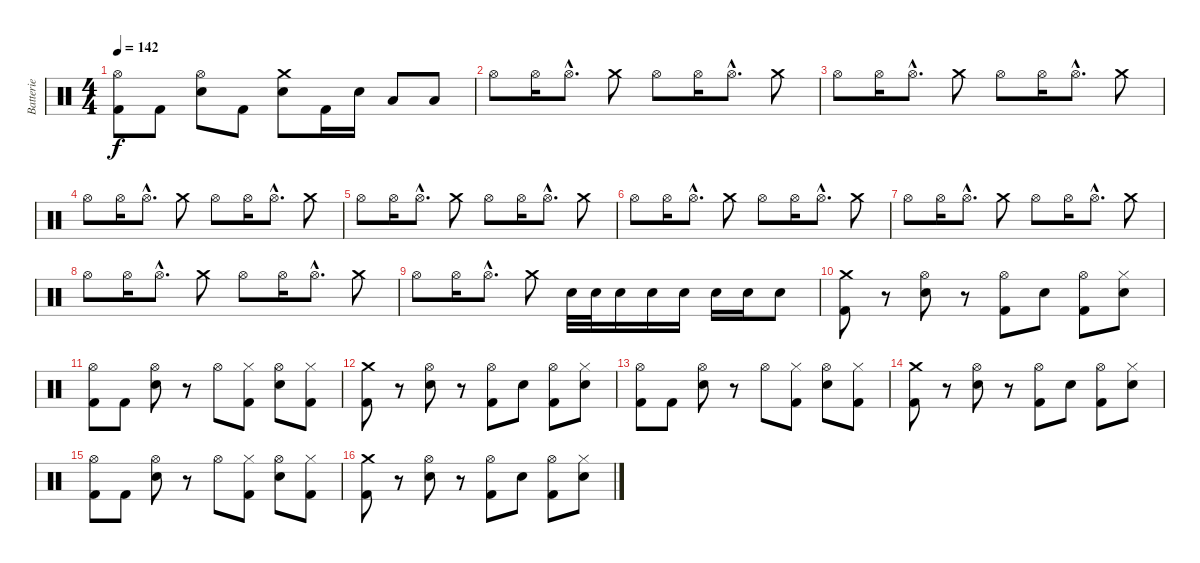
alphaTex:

\track ("Batterie" "Batterie") {instrument percussion}
\staff {score}
\articulation defaults
\ts (4 4)
\tempo 142
\clef neutral
\ks c
("Kick (hit) 2" "Hi-Hat (open)").8{dy f} "Kick (hit) 2".8 ("Electric Snare (hit)" "Hi-Hat (open)").8 "Kick (hit) 2".8 ("Electric Snare (hit)" "Crash medium (hit)").8 "Kick (hit) 2".16 "Electric Snare (hit)".16 "Low Tom (hit)".8 "Low Tom (hit)".8 |
"Hi-Hat (open)".8 "Hi-Hat (open)".16 "Hi-Hat (open)"{hac}.8{d} "Crash medium (hit)".8 "Hi-Hat (open)".8 "Hi-Hat (open)".16 "Hi-Hat (open)"{hac}.8{d} "Crash medium (hit)".8 |
"Hi-Hat (open)".8 "Hi-Hat (open)".16 "Hi-Hat (open)"{hac}.8{d} "Crash medium (hit)".8 "Hi-Hat (open)".8 "Hi-Hat (open)".16 "Hi-Hat (open)"{hac}.8{d} "Crash medium (hit)".8 |
"Hi-Hat (open)".8 "Hi-Hat (open)".16 "Hi-Hat (open)"{hac}.8{d} "Crash medium (hit)".8 "Hi-Hat (open)".8 "Hi-Hat (open)".16 "Hi-Hat (open)"{hac}.8{d} "Crash medium (hit)".8 |
"Hi-Hat (open)".8 "Hi-Hat (open)".16 "Hi-Hat (open)"{hac}.8{d} "Crash medium (hit)".8 "Hi-Hat (open)".8 "Hi-Hat (open)".16 "Hi-Hat (open)"{hac}.8{d} "Crash medium (hit)".8 |
"Hi-Hat (open)".8 "Hi-Hat (open)".16 "Hi-Hat (open)"{hac}.8{d} "Crash medium (hit)".8 "Hi-Hat (open)".8 "Hi-Hat (open)".16 "Hi-Hat (open)"{hac}.8{d} "Crash medium (hit)".8 |
"Hi-Hat (open)".8 "Hi-Hat (open)".16 "Hi-Hat (open)"{hac}.8{d} "Crash medium (hit)".8 "Hi-Hat (open)".8 "Hi-Hat (open)".16 "Hi-Hat (open)"{hac}.8{d} "Crash medium (hit)".8 |
"Hi-Hat (open)".8 "Hi-Hat (open)".16 "Hi-Hat (open)"{hac}.8{d} "Crash medium (hit)".8 "Hi-Hat (open)".8 "Hi-Hat (open)".16 "Hi-Hat (open)"{hac}.8{d} "Crash medium (hit)".8 |
"Hi-Hat (open)".8 "Hi-Hat (open)".16 "Hi-Hat (open)"{hac}.8{d} "Crash medium (hit)".8 "Electric Snare (hit)".32 "Electric Snare (hit)".32 "Electric Snare (hit)".16 "Electric Snare (hit)".16 "Electric Snare (hit)".16 "Electric Snare (hit)".16 "Electric Snare (hit)".16 "Electric Snare (hit)".8 |
("Kick (hit) 2" "Crash medium (hit)").8 r.8 ("Electric Snare (hit)" "Hi-Hat (open)").8 r.8 ("Kick (hit) 2" "Hi-Hat (open)").8 "Electric Snare (hit)".8 ("Kick (hit) 2" "Hi-Hat (open)").8 ("Electric Snare (hit)" "Hi-Hat (closed)").8 |
("Kick (hit) 2" "Hi-Hat (open)").8 "Kick (hit) 2".8 ("Electric Snare (hit)" "Hi-Hat (open)").8 r.8 "Hi-Hat (open)".8 ("Kick (hit) 2" "Hi-Hat (closed)").8 ("Electric Snare (hit)" "Hi-Hat (open)").8 ("Kick (hit) 2" "Hi-Hat (closed)").8 |
("Kick (hit) 2" "Crash medium (hit)").8 r.8 ("Electric Snare (hit)" "Hi-Hat (open)").8 r.8 ("Kick (hit) 2" "Hi-Hat (open)").8 "Electric Snare (hit)".8 ("Kick (hit) 2" "Hi-Hat (open)").8 ("Electric Snare (hit)" "Hi-Hat (closed)").8 |
("Kick (hit) 2" "Hi-Hat (open)").8 "Kick (hit) 2".8 ("Electric Snare (hit)" "Hi-Hat (open)").8 r.8 "Hi-Hat (open)".8 ("Kick (hit) 2" "Hi-Hat (closed)").8 ("Electric Snare (hit)" "Hi-Hat (open)").8 ("Kick (hit) 2" "Hi-Hat (closed)").8 |
("Kick (hit) 2" "Crash medium (hit)").8 r.8 ("Electric Snare (hit)" "Hi-Hat (open)").8 r.8 ("Kick (hit) 2" "Hi-Hat (open)").8 "Electric Snare (hit)".8 ("Kick (hit) 2" "Hi-Hat (open)").8 ("Electric Snare (hit)" "Hi-Hat (closed)").8 |
("Kick (hit) 2" "Hi-Hat (open)").8 "Kick (hit) 2".8 ("Electric Snare (hit)" "Hi-Hat (open)").8 r.8 "Hi-Hat (open)".8 ("Kick (hit) 2" "Hi-Hat (closed)").8 ("Electric Snare (hit)" "Hi-Hat (open)").8 ("Kick (hit) 2" "Hi-Hat (closed)").8 |
("Kick (hit) 2" "Crash medium (hit)").8 r.8 ("Electric Snare (hit)" "Hi-Hat (open)").8 r.8 ("Kick (hit) 2" "Hi-Hat (open)").8 "Electric Snare (hit)".8 ("Kick (hit) 2" "Hi-Hat (open)").8 ("Electric Snare (hit)" "Hi-Hat (closed)").8
